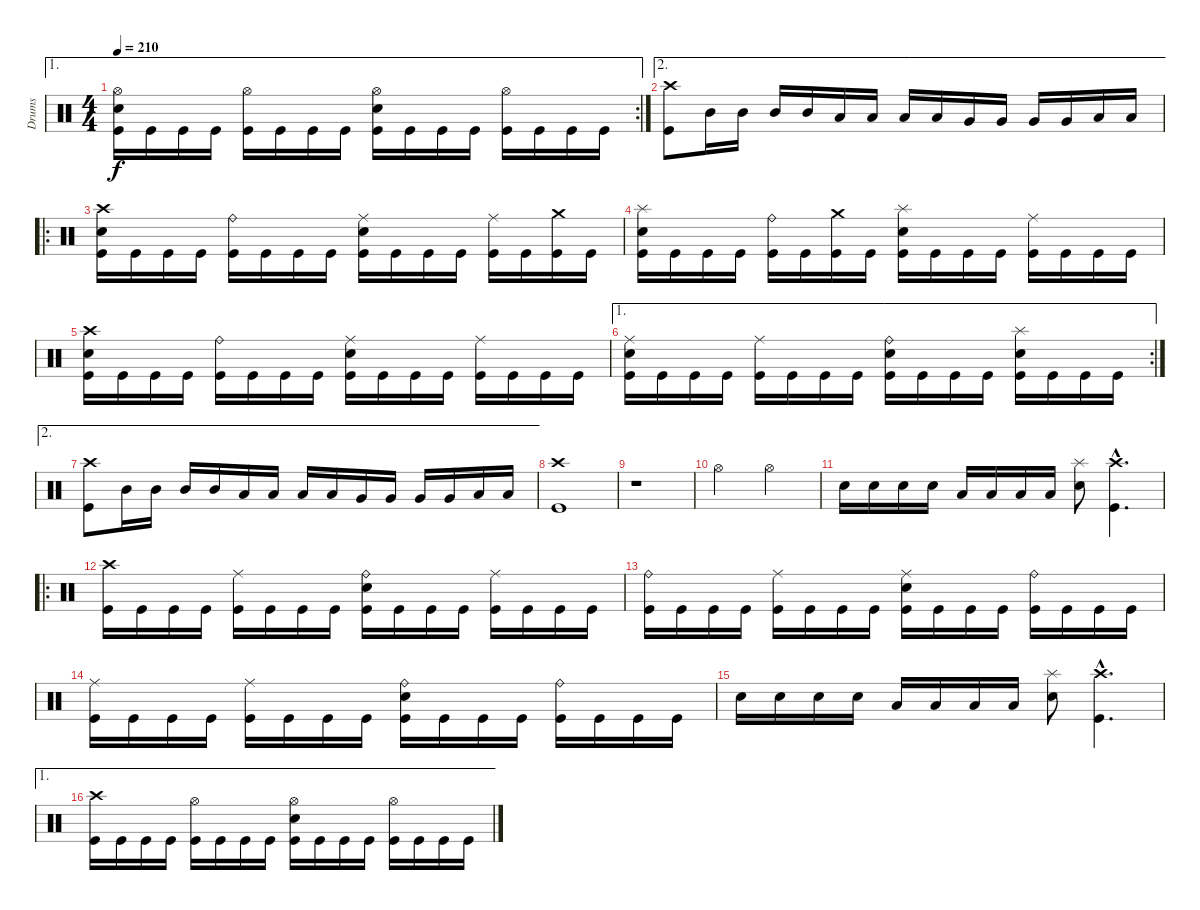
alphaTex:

\track ("Drums" "Drums") {instrument percussion}
\staff {score}
\articulation defaults
\ae 1
\rc 2
\ts (4 4)
\tempo 210
\clef neutral
\ks c
("Hi-Hat (open)" "Electric Snare (hit)" "Kick (hit)").16{dy f} "Kick (hit)".16 "Kick (hit)".16 "Kick (hit)".16 ("Hi-Hat (open)" "Kick (hit)").16 "Kick (hit)".16 "Kick (hit)".16 "Kick (hit)".16 ("Hi-Hat (open)" "Electric Snare (hit)" "Kick (hit)").16 "Kick (hit)".16 "Kick (hit)".16 "Kick (hit)".16 ("Hi-Hat (open)" "Kick (hit)").16 "Kick (hit)".16 "Kick (hit)".16 "Kick (hit)".16 |
\ae 2
("Crash high (hit)" "Kick (hit)").8 "Mid Tom (hit)".16 "Mid Tom (hit)".16 "Mid Tom (hit)".16 "Mid Tom (hit)".16 "Low Tom (hit)".16 "Low Tom (hit)".16 "Low Tom (hit)".16 "Low Tom (hit)".16 "Very Low Tom (hit)".16 "Very Low Tom (hit)".16 "Very Low Tom (hit)".16 "Very Low Tom (hit)".16 "Low Floor Tom (hit)".16 "Low Floor Tom (hit)".16 |
\ro
("Crash high (hit)" "Electric Snare (hit)" "Kick (hit)").16 "Kick (hit)".16 "Kick (hit)".16 "Kick (hit)".16 ("Ride (bell)" "Kick (hit)").16 "Kick (hit)".16 "Kick (hit)".16 "Kick (hit)".16 ("Ride (middle)" "Electric Snare (hit)" "Kick (hit)").16 "Kick (hit)".16 "Kick (hit)".16 "Kick (hit)".16 ("Ride (middle)" "Kick (hit)").16 "Kick (hit)".16 ("Crash medium (hit)" "Kick (hit)").16 "Kick (hit)".16 |
("Splash (hit)" "Electric Snare (hit)" "Kick (hit)").16 "Kick (hit)".16 "Kick (hit)".16 "Kick (hit)".16 ("Ride (bell)" "Kick (hit)").16 "Kick (hit)".16 ("Crash medium (hit)" "Kick (hit)").16 "Kick (hit)".16 ("Splash (hit)" "Electric Snare (hit)" "Kick (hit)").16 "Kick (hit)".16 "Kick (hit)".16 "Kick (hit)".16 ("Ride (middle)" "Kick (hit)").16 "Kick (hit)".16 "Kick (hit)".16 "Kick (hit)".16 |
("Crash high (hit)" "Electric Snare (hit)" "Kick (hit)").16 "Kick (hit)".16 "Kick (hit)".16 "Kick (hit)".16 ("Ride (bell)" "Kick (hit)").16 "Kick (hit)".16 "Kick (hit)".16 "Kick (hit)".16 ("Ride (middle)" "Electric Snare (hit)" "Kick (hit)").16 "Kick (hit)".16 "Kick (hit)".16 "Kick (hit)".16 ("Ride (middle)" "Kick (hit)").16 "Kick (hit)".16 "Kick (hit)".16 "Kick (hit)".16 |
\ae 1
\rc 2
("Ride (middle)" "Electric Snare (hit)" "Kick (hit)").16 "Kick (hit)".16 "Kick (hit)".16 "Kick (hit)".16 ("Ride (middle)" "Kick (hit)").16 "Kick (hit)".16 "Kick (hit)".16 "Kick (hit)".16 ("Ride (bell)" "Electric Snare (hit)" "Kick (hit)").16 "Kick (hit)".16 "Kick (hit)".16 "Kick (hit)".16 ("Splash (hit)" "Electric Snare (hit)" "Kick (hit)").16 "Kick (hit)".16 "Kick (hit)".16 "Kick (hit)".16 |
\ae 2
("Crash high (hit)" "Kick (hit)").8 "Mid Tom (hit)".16 "Mid Tom (hit)".16 "Mid Tom (hit)".16 "Mid Tom (hit)".16 "Low Tom (hit)".16 "Low Tom (hit)".16 "Low Tom (hit)".16 "Low Tom (hit)".16 "Very Low Tom (hit)".16 "Very Low Tom (hit)".16 "Very Low Tom (hit)".16 "Very Low Tom (hit)".16 "Low Floor Tom (hit)".16 "Low Floor Tom (hit)".16 |
("Crash high (hit)" "Kick (hit)").1 |
r.1 |
"Hi-Hat (open)".2 "Hi-Hat (open)".2 |
"Electric Snare (hit)".16 "Electric Snare (hit)".16 "Electric Snare (hit)".16 "Electric Snare (hit)".16 "Low Tom (hit)".16 "Low Tom (hit)".16 "Low Tom (hit)".16 "Low Tom (hit)".16 ("Splash (hit)" "Electric Snare (hit)").8 ("Crash high (hit)"{hac} "Kick (hit)"{hac}).4{d} |
\ro
("Crash high (hit)" "Kick (hit)").16 "Kick (hit)".16 "Kick (hit)".16 "Kick (hit)".16 ("Ride (middle)" "Kick (hit)").16 "Kick (hit)".16 "Kick (hit)".16 "Kick (hit)".16 ("Ride (bell)" "Electric Snare (hit)" "Kick (hit)").16 "Kick (hit)".16 "Kick (hit)".16 "Kick (hit)".16 ("Ride (middle)" "Kick (hit)").16 "Kick (hit)".16 "Kick (hit)".16 "Kick (hit)".16 |
("Ride (bell)" "Kick (hit)").16 "Kick (hit)".16 "Kick (hit)".16 "Kick (hit)".16 ("Ride (middle)" "Kick (hit)").16 "Kick (hit)".16 "Kick (hit)".16 "Kick (hit)".16 ("Ride (middle)" "Electric Snare (hit)" "Kick (hit)").16 "Kick (hit)".16 "Kick (hit)".16 "Kick (hit)".16 ("Ride (bell)" "Kick (hit)").16 "Kick (hit)".16 "Kick (hit)".16 "Kick (hit)".16 |
("Ride (middle)" "Kick (hit)").16 "Kick (hit)".16 "Kick (hit)".16 "Kick (hit)".16 ("Ride (middle)" "Kick (hit)").16 "Kick (hit)".16 "Kick (hit)".16 "Kick (hit)".16 ("Ride (bell)" "Electric Snare (hit)" "Kick (hit)").16 "Kick (hit)".16 "Kick (hit)".16 "Kick (hit)".16 ("Ride (bell)" "Kick (hit)").16 "Kick (hit)".16 "Kick (hit)".16 "Kick (hit)".16 |
"Electric Snare (hit)".16 "Electric Snare (hit)".16 "Electric Snare (hit)".16 "Electric Snare (hit)".16 "Low Tom (hit)".16 "Low Tom (hit)".16 "Low Tom (hit)".16 "Low Tom (hit)".16 ("Splash (hit)" "Electric Snare (hit)").8 ("Crash high (hit)"{hac} "Kick (hit)"{hac}).4{d} |
\ae 1
("Crash high (hit)" "Kick (hit)").16 "Kick (hit)".16 "Kick (hit)".16 "Kick (hit)".16 ("Hi-Hat (open)" "Kick (hit)").16 "Kick (hit)".16 "Kick (hit)".16 "Kick (hit)".16 ("Hi-Hat (open)" "Electric Snare (hit)" "Kick (hit)").16 "Kick (hit)".16 "Kick (hit)".16 "Kick (hit)".16 ("Hi-Hat (open)" "Kick (hit)").16 "Kick (hit)".16 "Kick (hit)".16 "Kick (hit)".16
